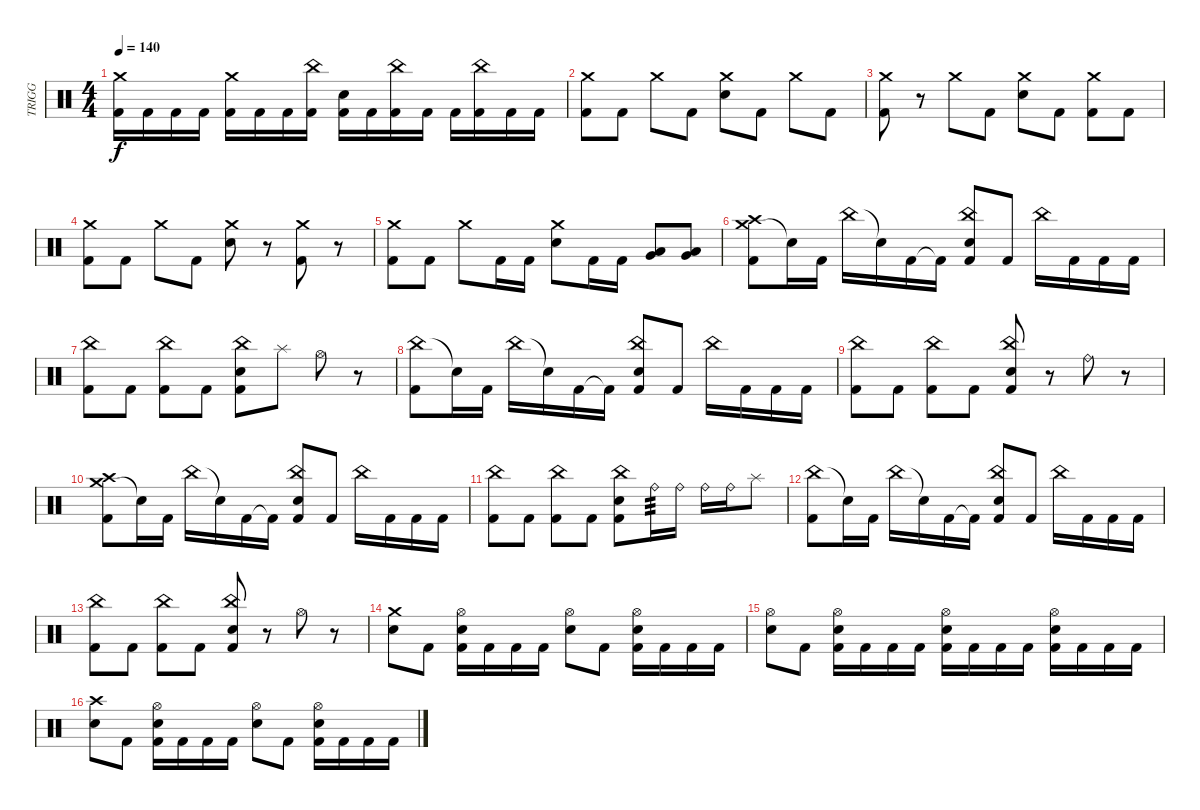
\track ("TRIGG" "TRIGG") {instrument percussion}
\staff {score}
\articulation defaults
\ts (4 4)
\tempo 140
\clef neutral
\ks c
("Crash medium (hit)" "Kick (hit) 2").16{dy f} "Kick (hit) 2".16 "Kick (hit) 2".16 "Kick (hit) 2".16 ("Crash medium (hit)" "Kick (hit) 2").16 "Kick (hit) 2".16 "Kick (hit) 2".16 ("China (hit)" "Kick (hit) 2").16 ("Electric Snare (hit)" "Kick (hit) 2").16 "Kick (hit) 2".16 ("China (hit)" "Kick (hit) 2").16 "Kick (hit) 2".16 "Kick (hit) 2".16 ("China (hit)" "Kick (hit) 2").16 "Kick (hit) 2".16 "Kick (hit) 2".16 |
("Crash medium (hit)" "Kick (hit) 2").8 "Kick (hit) 2".8 "Crash medium (hit)".8 "Kick (hit) 2".8 ("Crash medium (hit)" "Electric Snare (hit)").8 "Kick (hit) 2".8 "Crash medium (hit)".8 "Kick (hit) 2".8 |
("Crash medium (hit)" "Kick (hit) 2").8 r.8 "Crash medium (hit)".8 "Kick (hit) 2".8 ("Crash medium (hit)" "Electric Snare (hit)").8 "Kick (hit) 2".8 ("Crash medium (hit)" "Kick (hit) 2").8 "Kick (hit) 2".8 |
("Crash medium (hit)" "Kick (hit) 2").8 "Kick (hit) 2".8 "Crash medium (hit)".8 "Kick (hit) 2".8 ("Crash medium (hit)" "Electric Snare (hit)").8 r.8 ("Crash medium (hit)" "Kick (hit) 2").8 r.8 |
("Crash medium (hit)" "Kick (hit) 2").8 "Kick (hit) 2".8 "Crash medium (hit)".8 "Kick (hit) 2".16 "Kick (hit) 2".16 ("Crash medium (hit)" "Electric Snare (hit)").8 "Kick (hit) 2".16 "Kick (hit) 2".16 ("Very Low Tom (hit)" "Low Floor Tom (hit)").8 ("Very Low Tom (hit)" "Low Floor Tom (hit)").8 |
("Crash medium (hit)" "Crash high (hit)" "Kick (hit) 2").8 "Snare (hit)"{t}.16 "Kick (hit) 2".16 "China (hit)".16 "Snare (hit)"{t}.16 "Kick (hit) 2".16 "Kick (hit) 2"{t}.16 ("China (hit)" "Electric Snare (hit)" "Kick (hit) 2").8 "Kick (hit) 2".8 "China (hit)".16 "Kick (hit) 2".16 "Kick (hit) 2".16 "Kick (hit) 2".16 |
("China (hit)" "Kick (hit) 2").8 "Kick (hit) 2".8 ("China (hit)" "Kick (hit) 2").8 "Kick (hit) 2".8 ("China (hit)" "Electric Snare (hit)" "Kick (hit) 2").8 "Splash (hit)".8 "Hi-Hat (open)".8 r.8 |
("China (hit)" "Kick (hit) 2").8 "Snare (hit)"{t}.16 "Kick (hit) 2".16 "China (hit)".16 "Snare (hit)"{t}.16 "Kick (hit) 2".16 "Kick (hit) 2"{t}.16 ("China (hit)" "Electric Snare (hit)" "Kick (hit) 2").8 "Kick (hit) 2".8 "China (hit)".16 "Kick (hit) 2".16 "Kick (hit) 2".16 "Kick (hit) 2".16 |
("China (hit)" "Kick (hit) 2").8 "Kick (hit) 2".8 ("China (hit)" "Kick (hit) 2").8 "Kick (hit) 2".8 ("China (hit)" "Electric Snare (hit)" "Kick (hit) 2").8 r.8 "Ride (bell)".8 r.8 |
("Crash medium (hit)" "Crash high (hit)" "Kick (hit) 2").8 "Snare (hit)"{t}.16 "Kick (hit) 2".16 "China (hit)".16 "Snare (hit)"{t}.16 "Kick (hit) 2".16 "Kick (hit) 2"{t}.16 ("China (hit)" "Electric Snare (hit)" "Kick (hit) 2").8 "Kick (hit) 2".8 "China (hit)".16 "Kick (hit) 2".16 "Kick (hit) 2".16 "Kick (hit) 2".16 |
("China (hit)" "Kick (hit) 2").8 "Kick (hit) 2".8 ("China (hit)" "Kick (hit) 2").8 "Kick (hit) 2".8 ("China (hit)" "Electric Snare (hit)" "Kick (hit) 2").8 "Ride (bell)".16{tp 3} "Ride (bell)".16 "Ride (bell)".16 "Ride (bell)".16 "Splash (hit)".8 |
("China (hit)" "Kick (hit) 2").8 "Snare (hit)"{t}.16 "Kick (hit) 2".16 "China (hit)".16 "Snare (hit)"{t}.16 "Kick (hit) 2".16 "Kick (hit) 2"{t}.16 ("China (hit)" "Electric Snare (hit)" "Kick (hit) 2").8 "Kick (hit) 2".8 "China (hit)".16 "Kick (hit) 2".16 "Kick (hit) 2".16 "Kick (hit) 2".16 |
("China (hit)" "Kick (hit) 2").8 "Kick (hit) 2".8 ("China (hit)" "Kick (hit) 2").8 "Kick (hit) 2".8 ("China (hit)" "Electric Snare (hit)" "Kick (hit) 2").8 r.8 "Hi-Hat (open)".8 r.8 |
("Crash medium (hit)" "Electric Snare (hit)").8 "Kick (hit) 2".8 ("Hi-Hat (open)" "Electric Snare (hit)" "Kick (hit) 2").16 "Kick (hit) 2".16 "Kick (hit) 2".16 "Kick (hit) 2".16 ("Hi-Hat (open)" "Electric Snare (hit)").8 "Kick (hit) 2".8 ("Hi-Hat (open)" "Electric Snare (hit)" "Kick (hit) 2").16 "Kick (hit) 2".16 "Kick (hit) 2".16 "Kick (hit) 2".16 |
("Hi-Hat (open)" "Electric Snare (hit)").8 "Kick (hit) 2".8 ("Hi-Hat (open)" "Electric Snare (hit)" "Kick (hit) 2").16 "Kick (hit) 2".16 "Kick (hit) 2".16 "Kick (hit) 2".16 ("Hi-Hat (open)" "Electric Snare (hit)" "Kick (hit) 2").16 "Kick (hit) 2".16 "Kick (hit) 2".16 "Kick (hit) 2".16 ("Hi-Hat (open)" "Electric Snare (hit)" "Kick (hit) 2").16 "Kick (hit) 2".16 "Kick (hit) 2".16 "Kick (hit) 2".16 |
("Crash high (hit)" "Electric Snare (hit)").8 "Kick (hit) 2".8 ("Hi-Hat (open)" "Electric Snare (hit)" "Kick (hit) 2").16 "Kick (hit) 2".16 "Kick (hit) 2".16 "Kick (hit) 2".16 ("Hi-Hat (open)" "Electric Snare (hit)").8 "Kick (hit) 2".8 ("Hi-Hat (open)" "Electric Snare (hit)" "Kick (hit) 2").16 "Kick (hit) 2".16 "Kick (hit) 2".16 "Kick (hit) 2".16
